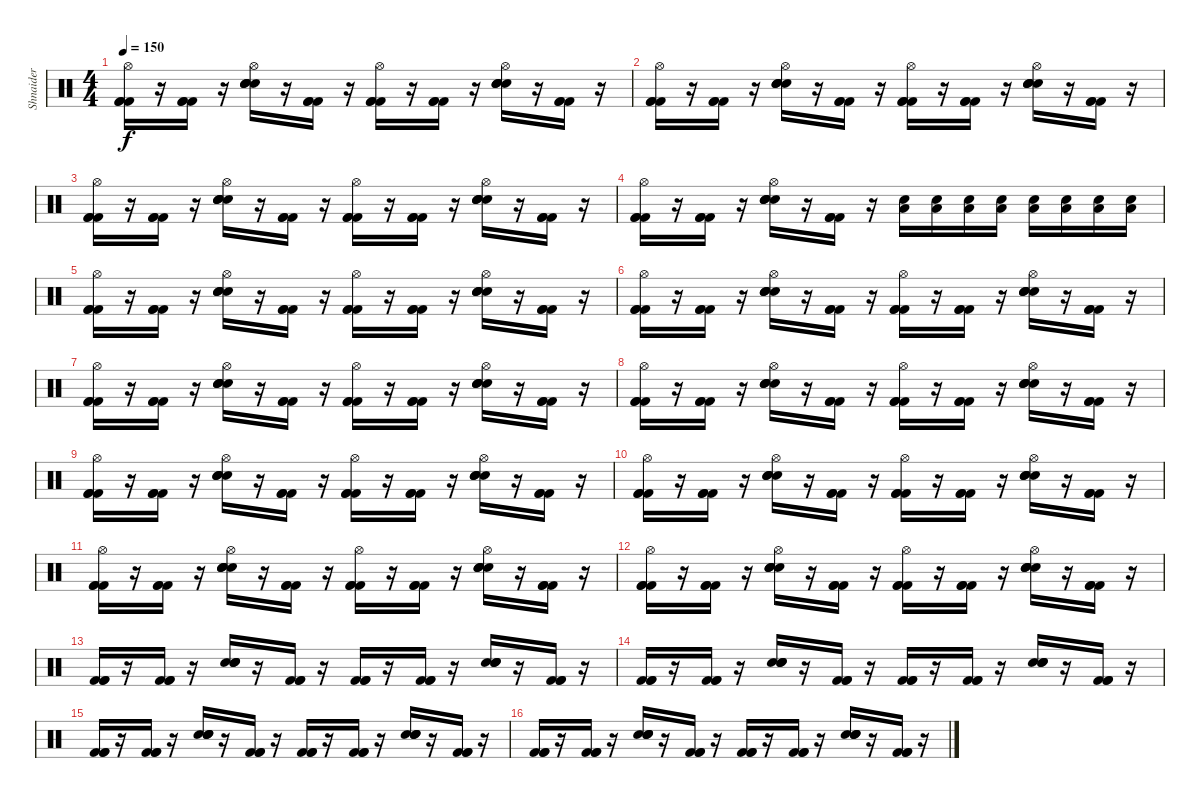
\track ("Shnaider" "Shnaider") {instrument percussion}
\staff {score}
\articulation defaults
\ts (4 4)
\tempo 150
\clef neutral
\ks c
("Kick (hit) 2" "Kick (hit) 2" "Kick (hit) 2" "Hi-Hat (open)").16{dy f} r.16 ("Kick (hit) 2" "Kick (hit) 2" "Kick (hit) 2").16 r.16 ("Electric Snare (hit)" "Electric Snare (hit)" "Electric Snare (hit)" "Electric Snare (hit)" "Hi-Hat (open)").16 r.16 ("Kick (hit) 2" "Kick (hit) 2" "Kick (hit) 2").16 r.16 ("Kick (hit) 2" "Kick (hit) 2" "Kick (hit) 2" "Hi-Hat (open)").16 r.16 ("Kick (hit) 2" "Kick (hit) 2" "Kick (hit) 2").16 r.16 ("Electric Snare (hit)" "Electric Snare (hit)" "Electric Snare (hit)" "Electric Snare (hit)" "Hi-Hat (open)").16 r.16 ("Kick (hit) 2" "Kick (hit) 2" "Kick (hit) 2").16 r.16 |
("Kick (hit) 2" "Kick (hit) 2" "Kick (hit) 2" "Hi-Hat (open)").16 r.16 ("Kick (hit) 2" "Kick (hit) 2" "Kick (hit) 2").16 r.16 ("Electric Snare (hit)" "Electric Snare (hit)" "Electric Snare (hit)" "Electric Snare (hit)" "Hi-Hat (open)").16 r.16 ("Kick (hit) 2" "Kick (hit) 2" "Kick (hit) 2").16 r.16 ("Kick (hit) 2" "Kick (hit) 2" "Kick (hit) 2" "Hi-Hat (open)").16 r.16 ("Kick (hit) 2" "Kick (hit) 2" "Kick (hit) 2").16 r.16 ("Electric Snare (hit)" "Electric Snare (hit)" "Electric Snare (hit)" "Electric Snare (hit)" "Hi-Hat (open)").16 r.16 ("Kick (hit) 2" "Kick (hit) 2" "Kick (hit) 2").16 r.16 |
("Kick (hit) 2" "Kick (hit) 2" "Kick (hit) 2" "Hi-Hat (open)").16 r.16 ("Kick (hit) 2" "Kick (hit) 2" "Kick (hit) 2").16 r.16 ("Electric Snare (hit)" "Electric Snare (hit)" "Electric Snare (hit)" "Electric Snare (hit)" "Hi-Hat (open)").16 r.16 ("Kick (hit) 2" "Kick (hit) 2" "Kick (hit) 2").16 r.16 ("Kick (hit) 2" "Kick (hit) 2" "Kick (hit) 2" "Hi-Hat (open)").16 r.16 ("Kick (hit) 2" "Kick (hit) 2" "Kick (hit) 2").16 r.16 ("Electric Snare (hit)" "Electric Snare (hit)" "Electric Snare (hit)" "Electric Snare (hit)" "Hi-Hat (open)").16 r.16 ("Kick (hit) 2" "Kick (hit) 2" "Kick (hit) 2").16 r.16 |
("Kick (hit) 2" "Kick (hit) 2" "Kick (hit) 2" "Hi-Hat (open)").16 r.16 ("Kick (hit) 2" "Kick (hit) 2" "Kick (hit) 2").16 r.16 ("Electric Snare (hit)" "Electric Snare (hit)" "Electric Snare (hit)" "Electric Snare (hit)" "Hi-Hat (open)").16 r.16 ("Kick (hit) 2" "Kick (hit) 2" "Kick (hit) 2").16 r.16 ("Electric Snare (hit)" "Low Floor Tom (hit)").16 ("Electric Snare (hit)" "Low Floor Tom (hit)").16 ("Electric Snare (hit)" "Low Floor Tom (hit)").16 ("Electric Snare (hit)" "Low Floor Tom (hit)").16 ("Electric Snare (hit)" "Low Floor Tom (hit)").16 ("Electric Snare (hit)" "Low Floor Tom (hit)").16 ("Electric Snare (hit)" "Low Floor Tom (hit)").16 ("Electric Snare (hit)" "Low Floor Tom (hit)").16 |
("Kick (hit) 2" "Kick (hit) 2" "Kick (hit) 2" "Hi-Hat (open)").16 r.16 ("Kick (hit) 2" "Kick (hit) 2" "Kick (hit) 2").16 r.16 ("Electric Snare (hit)" "Electric Snare (hit)" "Electric Snare (hit)" "Electric Snare (hit)" "Hi-Hat (open)").16 r.16 ("Kick (hit) 2" "Kick (hit) 2" "Kick (hit) 2").16 r.16 ("Kick (hit) 2" "Kick (hit) 2" "Kick (hit) 2" "Hi-Hat (open)").16 r.16 ("Kick (hit) 2" "Kick (hit) 2" "Kick (hit) 2").16 r.16 ("Electric Snare (hit)" "Electric Snare (hit)" "Electric Snare (hit)" "Electric Snare (hit)" "Hi-Hat (open)").16 r.16 ("Kick (hit) 2" "Kick (hit) 2" "Kick (hit) 2").16 r.16 |
("Kick (hit) 2" "Kick (hit) 2" "Kick (hit) 2" "Hi-Hat (open)").16 r.16 ("Kick (hit) 2" "Kick (hit) 2" "Kick (hit) 2").16 r.16 ("Electric Snare (hit)" "Electric Snare (hit)" "Electric Snare (hit)" "Electric Snare (hit)" "Hi-Hat (open)").16 r.16 ("Kick (hit) 2" "Kick (hit) 2" "Kick (hit) 2").16 r.16 ("Kick (hit) 2" "Kick (hit) 2" "Kick (hit) 2" "Hi-Hat (open)").16 r.16 ("Kick (hit) 2" "Kick (hit) 2" "Kick (hit) 2").16 r.16 ("Electric Snare (hit)" "Electric Snare (hit)" "Electric Snare (hit)" "Electric Snare (hit)" "Hi-Hat (open)").16 r.16 ("Kick (hit) 2" "Kick (hit) 2" "Kick (hit) 2").16 r.16 |
("Kick (hit) 2" "Kick (hit) 2" "Kick (hit) 2" "Hi-Hat (open)").16 r.16 ("Kick (hit) 2" "Kick (hit) 2" "Kick (hit) 2").16 r.16 ("Electric Snare (hit)" "Electric Snare (hit)" "Electric Snare (hit)" "Electric Snare (hit)" "Hi-Hat (open)").16 r.16 ("Kick (hit) 2" "Kick (hit) 2" "Kick (hit) 2").16 r.16 ("Kick (hit) 2" "Kick (hit) 2" "Kick (hit) 2" "Hi-Hat (open)").16 r.16 ("Kick (hit) 2" "Kick (hit) 2" "Kick (hit) 2").16 r.16 ("Electric Snare (hit)" "Electric Snare (hit)" "Electric Snare (hit)" "Electric Snare (hit)" "Hi-Hat (open)").16 r.16 ("Kick (hit) 2" "Kick (hit) 2" "Kick (hit) 2").16 r.16 |
("Kick (hit) 2" "Kick (hit) 2" "Kick (hit) 2" "Hi-Hat (open)").16 r.16 ("Kick (hit) 2" "Kick (hit) 2" "Kick (hit) 2").16 r.16 ("Electric Snare (hit)" "Electric Snare (hit)" "Electric Snare (hit)" "Electric Snare (hit)" "Hi-Hat (open)").16 r.16 ("Kick (hit) 2" "Kick (hit) 2" "Kick (hit) 2").16 r.16 ("Kick (hit) 2" "Kick (hit) 2" "Kick (hit) 2" "Hi-Hat (open)").16 r.16 ("Kick (hit) 2" "Kick (hit) 2" "Kick (hit) 2").16 r.16 ("Electric Snare (hit)" "Electric Snare (hit)" "Electric Snare (hit)" "Electric Snare (hit)" "Hi-Hat (open)").16 r.16 ("Kick (hit) 2" "Kick (hit) 2" "Kick (hit) 2").16 r.16 |
("Kick (hit) 2" "Kick (hit) 2" "Kick (hit) 2" "Hi-Hat (open)").16 r.16 ("Kick (hit) 2" "Kick (hit) 2" "Kick (hit) 2").16 r.16 ("Electric Snare (hit)" "Electric Snare (hit)" "Electric Snare (hit)" "Electric Snare (hit)" "Hi-Hat (open)").16 r.16 ("Kick (hit) 2" "Kick (hit) 2" "Kick (hit) 2").16 r.16 ("Kick (hit) 2" "Kick (hit) 2" "Kick (hit) 2" "Hi-Hat (open)").16 r.16 ("Kick (hit) 2" "Kick (hit) 2" "Kick (hit) 2").16 r.16 ("Electric Snare (hit)" "Electric Snare (hit)" "Electric Snare (hit)" "Electric Snare (hit)" "Hi-Hat (open)").16 r.16 ("Kick (hit) 2" "Kick (hit) 2" "Kick (hit) 2").16 r.16 |
("Kick (hit) 2" "Kick (hit) 2" "Kick (hit) 2" "Hi-Hat (open)").16 r.16 ("Kick (hit) 2" "Kick (hit) 2" "Kick (hit) 2").16 r.16 ("Electric Snare (hit)" "Electric Snare (hit)" "Electric Snare (hit)" "Electric Snare (hit)" "Hi-Hat (open)").16 r.16 ("Kick (hit) 2" "Kick (hit) 2" "Kick (hit) 2").16 r.16 ("Kick (hit) 2" "Kick (hit) 2" "Kick (hit) 2" "Hi-Hat (open)").16 r.16 ("Kick (hit) 2" "Kick (hit) 2" "Kick (hit) 2").16 r.16 ("Electric Snare (hit)" "Electric Snare (hit)" "Electric Snare (hit)" "Electric Snare (hit)" "Hi-Hat (open)").16 r.16 ("Kick (hit) 2" "Kick (hit) 2" "Kick (hit) 2").16 r.16 |
("Kick (hit) 2" "Kick (hit) 2" "Kick (hit) 2" "Hi-Hat (open)").16 r.16 ("Kick (hit) 2" "Kick (hit) 2" "Kick (hit) 2").16 r.16 ("Electric Snare (hit)" "Electric Snare (hit)" "Electric Snare (hit)" "Electric Snare (hit)" "Hi-Hat (open)").16 r.16 ("Kick (hit) 2" "Kick (hit) 2" "Kick (hit) 2").16 r.16 ("Kick (hit) 2" "Kick (hit) 2" "Kick (hit) 2" "Hi-Hat (open)").16 r.16 ("Kick (hit) 2" "Kick (hit) 2" "Kick (hit) 2").16 r.16 ("Electric Snare (hit)" "Electric Snare (hit)" "Electric Snare (hit)" "Electric Snare (hit)" "Hi-Hat (open)").16 r.16 ("Kick (hit) 2" "Kick (hit) 2" "Kick (hit) 2").16 r.16 |
("Kick (hit) 2" "Kick (hit) 2" "Kick (hit) 2" "Hi-Hat (open)").16 r.16 ("Kick (hit) 2" "Kick (hit) 2" "Kick (hit) 2").16 r.16 ("Electric Snare (hit)" "Electric Snare (hit)" "Electric Snare (hit)" "Electric Snare (hit)" "Hi-Hat (open)").16 r.16 ("Kick (hit) 2" "Kick (hit) 2" "Kick (hit) 2").16 r.16 ("Kick (hit) 2" "Kick (hit) 2" "Kick (hit) 2" "Hi-Hat (open)").16 r.16 ("Kick (hit) 2" "Kick (hit) 2" "Kick (hit) 2").16 r.16 ("Electric Snare (hit)" "Electric Snare (hit)" "Electric Snare (hit)" "Electric Snare (hit)" "Hi-Hat (open)").16 r.16 ("Kick (hit) 2" "Kick (hit) 2" "Kick (hit) 2").16 r.16 |
("Kick (hit) 2" "Kick (hit) 2" "Kick (hit) 2").16 r.16 ("Kick (hit) 2" "Kick (hit) 2" "Kick (hit) 2").16 r.16 ("Electric Snare (hit)" "Electric Snare (hit)" "Electric Snare (hit)" "Electric Snare (hit)").16 r.16 ("Kick (hit) 2" "Kick (hit) 2" "Kick (hit) 2").16 r.16 ("Kick (hit) 2" "Kick (hit) 2" "Kick (hit) 2").16 r.16 ("Kick (hit) 2" "Kick (hit) 2" "Kick (hit) 2").16 r.16 ("Electric Snare (hit)" "Electric Snare (hit)" "Electric Snare (hit)" "Electric Snare (hit)").16 r.16 ("Kick (hit) 2" "Kick (hit) 2" "Kick (hit) 2").16 r.16 |
("Kick (hit) 2" "Kick (hit) 2" "Kick (hit) 2").16 r.16 ("Kick (hit) 2" "Kick (hit) 2" "Kick (hit) 2").16 r.16 ("Electric Snare (hit)" "Electric Snare (hit)" "Electric Snare (hit)" "Electric Snare (hit)").16 r.16 ("Kick (hit) 2" "Kick (hit) 2" "Kick (hit) 2").16 r.16 ("Kick (hit) 2" "Kick (hit) 2" "Kick (hit) 2").16 r.16 ("Kick (hit) 2" "Kick (hit) 2" "Kick (hit) 2").16 r.16 ("Electric Snare (hit)" "Electric Snare (hit)" "Electric Snare (hit)" "Electric Snare (hit)").16 r.16 ("Kick (hit) 2" "Kick (hit) 2" "Kick (hit) 2").16 r.16 |
("Kick (hit) 2" "Kick (hit) 2" "Kick (hit) 2").16 r.16 ("Kick (hit) 2" "Kick (hit) 2" "Kick (hit) 2").16 r.16 ("Electric Snare (hit)" "Electric Snare (hit)" "Electric Snare (hit)" "Electric Snare (hit)").16 r.16 ("Kick (hit) 2" "Kick (hit) 2" "Kick (hit) 2").16 r.16 ("Kick (hit) 2" "Kick (hit) 2" "Kick (hit) 2").16 r.16 ("Kick (hit) 2" "Kick (hit) 2" "Kick (hit) 2").16 r.16 ("Electric Snare (hit)" "Electric Snare (hit)" "Electric Snare (hit)" "Electric Snare (hit)").16 r.16 ("Kick (hit) 2" "Kick (hit) 2" "Kick (hit) 2").16 r.16 |
("Kick (hit) 2" "Kick (hit) 2" "Kick (hit) 2").16 r.16 ("Kick (hit) 2" "Kick (hit) 2" "Kick (hit) 2").16 r.16 ("Electric Snare (hit)" "Electric Snare (hit)" "Electric Snare (hit)" "Electric Snare (hit)").16 r.16 ("Kick (hit) 2" "Kick (hit) 2" "Kick (hit) 2").16 r.16 ("Kick (hit) 2" "Kick (hit) 2" "Kick (hit) 2").16 r.16 ("Kick (hit) 2" "Kick (hit) 2" "Kick (hit) 2").16 r.16 ("Electric Snare (hit)" "Electric Snare (hit)" "Electric Snare (hit)" "Electric Snare (hit)").16 r.16 ("Kick (hit) 2" "Kick (hit) 2" "Kick (hit) 2").16 r.16
